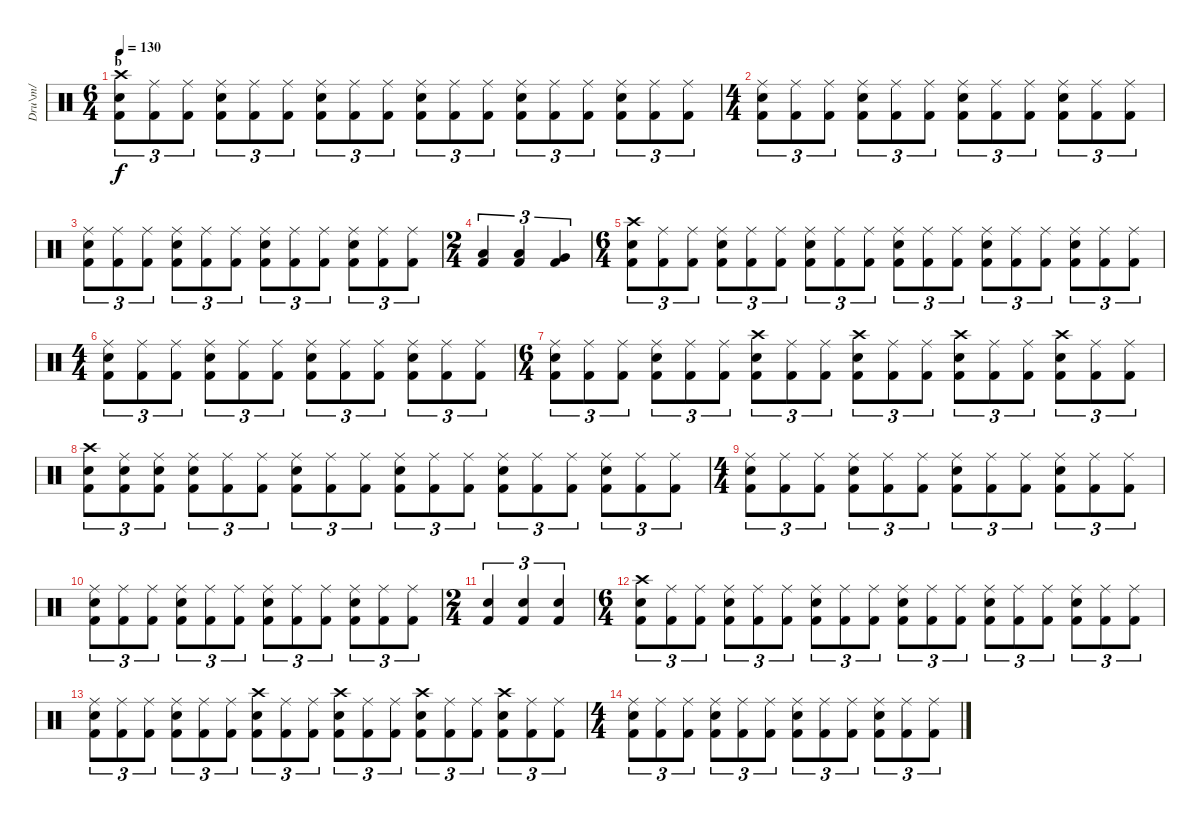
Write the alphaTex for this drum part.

\track ("Dru\\m/" "Dru\\m/") {instrument percussion}
\staff {score}
\articulation defaults
\ts (6 4)
\section ("" "b")
\tempo 130
\clef neutral
\ks c
("Crash high (hit)" "Electric Snare (hit)" "Kick (hit) 2").8{tu (3 2) dy f} ("Ride (middle)" "Kick (hit) 2").8{tu (3 2)} ("Ride (middle)" "Kick (hit) 2").8{tu (3 2)} ("Ride (middle)" "Electric Snare (hit)" "Kick (hit) 2").8{tu (3 2)} ("Ride (middle)" "Kick (hit) 2").8{tu (3 2)} ("Ride (middle)" "Kick (hit) 2").8{tu (3 2)} ("Ride (middle)" "Electric Snare (hit)" "Kick (hit) 2").8{tu (3 2)} ("Ride (middle)" "Kick (hit) 2").8{tu (3 2)} ("Ride (middle)" "Kick (hit) 2").8{tu (3 2)} ("Ride (middle)" "Electric Snare (hit)" "Kick (hit) 2").8{tu (3 2)} ("Ride (middle)" "Kick (hit) 2").8{tu (3 2)} ("Ride (middle)" "Kick (hit) 2").8{tu (3 2)} ("Ride (middle)" "Electric Snare (hit)" "Kick (hit) 2").8{tu (3 2)} ("Ride (middle)" "Kick (hit) 2").8{tu (3 2)} ("Ride (middle)" "Kick (hit) 2").8{tu (3 2)} ("Ride (middle)" "Electric Snare (hit)" "Kick (hit) 2").8{tu (3 2)} ("Ride (middle)" "Kick (hit) 2").8{tu (3 2)} ("Ride (middle)" "Kick (hit) 2").8{tu (3 2)} |
\ts (4 4)
("Ride (middle)" "Electric Snare (hit)" "Kick (hit) 2").8{tu (3 2)} ("Ride (middle)" "Kick (hit) 2").8{tu (3 2)} ("Ride (middle)" "Kick (hit) 2").8{tu (3 2)} ("Ride (middle)" "Electric Snare (hit)" "Kick (hit) 2").8{tu (3 2)} ("Ride (middle)" "Kick (hit) 2").8{tu (3 2)} ("Ride (middle)" "Kick (hit) 2").8{tu (3 2)} ("Ride (middle)" "Electric Snare (hit)" "Kick (hit) 2").8{tu (3 2)} ("Ride (middle)" "Kick (hit) 2").8{tu (3 2)} ("Ride (middle)" "Kick (hit) 2").8{tu (3 2)} ("Ride (middle)" "Electric Snare (hit)" "Kick (hit) 2").8{tu (3 2)} ("Ride (middle)" "Kick (hit) 2").8{tu (3 2)} ("Ride (middle)" "Kick (hit) 2").8{tu (3 2)} |
("Ride (middle)" "Electric Snare (hit)" "Kick (hit) 2").8{tu (3 2)} ("Ride (middle)" "Kick (hit) 2").8{tu (3 2)} ("Ride (middle)" "Kick (hit) 2").8{tu (3 2)} ("Ride (middle)" "Electric Snare (hit)" "Kick (hit) 2").8{tu (3 2)} ("Ride (middle)" "Kick (hit) 2").8{tu (3 2)} ("Ride (middle)" "Kick (hit) 2").8{tu (3 2)} ("Ride (middle)" "Electric Snare (hit)" "Kick (hit) 2").8{tu (3 2)} ("Ride (middle)" "Kick (hit) 2").8{tu (3 2)} ("Ride (middle)" "Kick (hit) 2").8{tu (3 2)} ("Ride (middle)" "Electric Snare (hit)" "Kick (hit) 2").8{tu (3 2)} ("Ride (middle)" "Kick (hit) 2").8{tu (3 2)} ("Ride (middle)" "Kick (hit) 2").8{tu (3 2)} |
\ts (2 4)
("Low Tom (hit)" "Kick (hit) 2").4{tu (3 2)} ("Low Tom (hit)" "Kick (hit) 2").4{tu (3 2)} ("Very Low Tom (hit)" "Kick (hit) 2").4{tu (3 2)} |
\ts (6 4)
("Crash high (hit)" "Electric Snare (hit)" "Kick (hit) 2").8{tu (3 2)} ("Ride (middle)" "Kick (hit) 2").8{tu (3 2)} ("Ride (middle)" "Kick (hit) 2").8{tu (3 2)} ("Ride (middle)" "Electric Snare (hit)" "Kick (hit) 2").8{tu (3 2)} ("Ride (middle)" "Kick (hit) 2").8{tu (3 2)} ("Ride (middle)" "Kick (hit) 2").8{tu (3 2)} ("Ride (middle)" "Electric Snare (hit)" "Kick (hit) 2").8{tu (3 2)} ("Ride (middle)" "Kick (hit) 2").8{tu (3 2)} ("Ride (middle)" "Kick (hit) 2").8{tu (3 2)} ("Ride (middle)" "Electric Snare (hit)" "Kick (hit) 2").8{tu (3 2)} ("Ride (middle)" "Kick (hit) 2").8{tu (3 2)} ("Ride (middle)" "Kick (hit) 2").8{tu (3 2)} ("Ride (middle)" "Electric Snare (hit)" "Kick (hit) 2").8{tu (3 2)} ("Ride (middle)" "Kick (hit) 2").8{tu (3 2)} ("Ride (middle)" "Kick (hit) 2").8{tu (3 2)} ("Ride (middle)" "Electric Snare (hit)" "Kick (hit) 2").8{tu (3 2)} ("Ride (middle)" "Kick (hit) 2").8{tu (3 2)} ("Ride (middle)" "Kick (hit) 2").8{tu (3 2)} |
\ts (4 4)
("Ride (middle)" "Electric Snare (hit)" "Kick (hit) 2").8{tu (3 2)} ("Ride (middle)" "Kick (hit) 2").8{tu (3 2)} ("Ride (middle)" "Kick (hit) 2").8{tu (3 2)} ("Ride (middle)" "Electric Snare (hit)" "Kick (hit) 2").8{tu (3 2)} ("Ride (middle)" "Kick (hit) 2").8{tu (3 2)} ("Ride (middle)" "Kick (hit) 2").8{tu (3 2)} ("Ride (middle)" "Electric Snare (hit)" "Kick (hit) 2").8{tu (3 2)} ("Ride (middle)" "Kick (hit) 2").8{tu (3 2)} ("Ride (middle)" "Kick (hit) 2").8{tu (3 2)} ("Ride (middle)" "Electric Snare (hit)" "Kick (hit) 2").8{tu (3 2)} ("Ride (middle)" "Kick (hit) 2").8{tu (3 2)} ("Ride (middle)" "Kick (hit) 2").8{tu (3 2)} |
\ts (6 4)
("Ride (middle)" "Electric Snare (hit)" "Kick (hit) 2").8{tu (3 2)} ("Ride (middle)" "Kick (hit) 2").8{tu (3 2)} ("Ride (middle)" "Kick (hit) 2").8{tu (3 2)} ("Ride (middle)" "Electric Snare (hit)" "Kick (hit) 2").8{tu (3 2)} ("Ride (middle)" "Kick (hit) 2").8{tu (3 2)} ("Ride (middle)" "Kick (hit) 2").8{tu (3 2)} ("Crash high (hit)" "Electric Snare (hit)" "Kick (hit) 2").8{tu (3 2)} ("Ride (middle)" "Kick (hit) 2").8{tu (3 2)} ("Ride (middle)" "Kick (hit) 2").8{tu (3 2)} ("Crash high (hit)" "Electric Snare (hit)" "Kick (hit) 2").8{tu (3 2)} ("Ride (middle)" "Kick (hit) 2").8{tu (3 2)} ("Ride (middle)" "Kick (hit) 2").8{tu (3 2)} ("Crash high (hit)" "Electric Snare (hit)" "Kick (hit) 2").8{tu (3 2)} ("Ride (middle)" "Kick (hit) 2").8{tu (3 2)} ("Ride (middle)" "Kick (hit) 2").8{tu (3 2)} ("Crash high (hit)" "Electric Snare (hit)" "Kick (hit) 2").8{tu (3 2)} ("Ride (middle)" "Kick (hit) 2").8{tu (3 2)} ("Ride (middle)" "Kick (hit) 2").8{tu (3 2)} |
("Crash high (hit)" "Electric Snare (hit)" "Kick (hit) 2").8{tu (3 2)} ("Ride (middle)" "Electric Snare (hit)" "Kick (hit) 2").8{tu (3 2)} ("Ride (middle)" "Electric Snare (hit)" "Kick (hit) 2").8{tu (3 2)} ("Ride (middle)" "Electric Snare (hit)" "Kick (hit) 2").8{tu (3 2)} ("Ride (middle)" "Kick (hit) 2").8{tu (3 2)} ("Ride (middle)" "Kick (hit) 2").8{tu (3 2)} ("Ride (middle)" "Electric Snare (hit)" "Kick (hit) 2").8{tu (3 2)} ("Ride (middle)" "Kick (hit) 2").8{tu (3 2)} ("Ride (middle)" "Kick (hit) 2").8{tu (3 2)} ("Ride (middle)" "Electric Snare (hit)" "Kick (hit) 2").8{tu (3 2)} ("Ride (middle)" "Kick (hit) 2").8{tu (3 2)} ("Ride (middle)" "Kick (hit) 2").8{tu (3 2)} ("Ride (middle)" "Electric Snare (hit)" "Kick (hit) 2").8{tu (3 2)} ("Ride (middle)" "Kick (hit) 2").8{tu (3 2)} ("Ride (middle)" "Kick (hit) 2").8{tu (3 2)} ("Ride (middle)" "Electric Snare (hit)" "Kick (hit) 2").8{tu (3 2)} ("Ride (middle)" "Kick (hit) 2").8{tu (3 2)} ("Ride (middle)" "Kick (hit) 2").8{tu (3 2)} |
\ts (4 4)
("Ride (middle)" "Electric Snare (hit)" "Kick (hit) 2").8{tu (3 2)} ("Ride (middle)" "Kick (hit) 2").8{tu (3 2)} ("Ride (middle)" "Kick (hit) 2").8{tu (3 2)} ("Ride (middle)" "Electric Snare (hit)" "Kick (hit) 2").8{tu (3 2)} ("Ride (middle)" "Kick (hit) 2").8{tu (3 2)} ("Ride (middle)" "Kick (hit) 2").8{tu (3 2)} ("Ride (middle)" "Electric Snare (hit)" "Kick (hit) 2").8{tu (3 2)} ("Ride (middle)" "Kick (hit) 2").8{tu (3 2)} ("Ride (middle)" "Kick (hit) 2").8{tu (3 2)} ("Ride (middle)" "Electric Snare (hit)" "Kick (hit) 2").8{tu (3 2)} ("Ride (middle)" "Kick (hit) 2").8{tu (3 2)} ("Ride (middle)" "Kick (hit) 2").8{tu (3 2)} |
("Ride (middle)" "Electric Snare (hit)" "Kick (hit) 2").8{tu (3 2)} ("Ride (middle)" "Kick (hit) 2").8{tu (3 2)} ("Ride (middle)" "Kick (hit) 2").8{tu (3 2)} ("Ride (middle)" "Electric Snare (hit)" "Kick (hit) 2").8{tu (3 2)} ("Ride (middle)" "Kick (hit) 2").8{tu (3 2)} ("Ride (middle)" "Kick (hit) 2").8{tu (3 2)} ("Ride (middle)" "Electric Snare (hit)" "Kick (hit) 2").8{tu (3 2)} ("Ride (middle)" "Kick (hit) 2").8{tu (3 2)} ("Ride (middle)" "Kick (hit) 2").8{tu (3 2)} ("Ride (middle)" "Electric Snare (hit)" "Kick (hit) 2").8{tu (3 2)} ("Ride (middle)" "Kick (hit) 2").8{tu (3 2)} ("Ride (middle)" "Kick (hit) 2").8{tu (3 2)} |
\ts (2 4)
("Electric Snare (hit)" "Kick (hit) 2").4{tu (3 2)} ("Electric Snare (hit)" "Kick (hit) 2").4{tu (3 2)} ("Electric Snare (hit)" "Kick (hit) 2").4{tu (3 2)} |
\ts (6 4)
("Crash high (hit)" "Electric Snare (hit)" "Kick (hit) 2").8{tu (3 2)} ("Ride (middle)" "Kick (hit) 2").8{tu (3 2)} ("Ride (middle)" "Kick (hit) 2").8{tu (3 2)} ("Ride (middle)" "Electric Snare (hit)" "Kick (hit) 2").8{tu (3 2)} ("Ride (middle)" "Kick (hit) 2").8{tu (3 2)} ("Ride (middle)" "Kick (hit) 2").8{tu (3 2)} ("Ride (middle)" "Electric Snare (hit)" "Kick (hit) 2").8{tu (3 2)} ("Ride (middle)" "Kick (hit) 2").8{tu (3 2)} ("Ride (middle)" "Kick (hit) 2").8{tu (3 2)} ("Ride (middle)" "Electric Snare (hit)" "Kick (hit) 2").8{tu (3 2)} ("Ride (middle)" "Kick (hit) 2").8{tu (3 2)} ("Ride (middle)" "Kick (hit) 2").8{tu (3 2)} ("Ride (middle)" "Electric Snare (hit)" "Kick (hit) 2").8{tu (3 2)} ("Ride (middle)" "Kick (hit) 2").8{tu (3 2)} ("Ride (middle)" "Kick (hit) 2").8{tu (3 2)} ("Ride (middle)" "Electric Snare (hit)" "Kick (hit) 2").8{tu (3 2)} ("Ride (middle)" "Kick (hit) 2").8{tu (3 2)} ("Ride (middle)" "Kick (hit) 2").8{tu (3 2)} |
("Ride (middle)" "Electric Snare (hit)" "Kick (hit) 2").8{tu (3 2)} ("Ride (middle)" "Kick (hit) 2").8{tu (3 2)} ("Ride (middle)" "Kick (hit) 2").8{tu (3 2)} ("Ride (middle)" "Electric Snare (hit)" "Kick (hit) 2").8{tu (3 2)} ("Ride (middle)" "Kick (hit) 2").8{tu (3 2)} ("Ride (middle)" "Kick (hit) 2").8{tu (3 2)} ("Crash high (hit)" "Electric Snare (hit)" "Kick (hit) 2").8{tu (3 2)} ("Ride (middle)" "Kick (hit) 2").8{tu (3 2)} ("Ride (middle)" "Kick (hit) 2").8{tu (3 2)} ("Crash high (hit)" "Electric Snare (hit)" "Kick (hit) 2").8{tu (3 2)} ("Ride (middle)" "Kick (hit) 2").8{tu (3 2)} ("Ride (middle)" "Kick (hit) 2").8{tu (3 2)} ("Crash high (hit)" "Electric Snare (hit)" "Kick (hit) 2").8{tu (3 2)} ("Ride (middle)" "Kick (hit) 2").8{tu (3 2)} ("Ride (middle)" "Kick (hit) 2").8{tu (3 2)} ("Crash high (hit)" "Electric Snare (hit)" "Kick (hit) 2").8{tu (3 2)} ("Ride (middle)" "Kick (hit) 2").8{tu (3 2)} ("Ride (middle)" "Kick (hit) 2").8{tu (3 2)} |
\ts (4 4)
("Ride (middle)" "Electric Snare (hit)" "Kick (hit) 2").8{tu (3 2)} ("Ride (middle)" "Kick (hit) 2").8{tu (3 2)} ("Ride (middle)" "Kick (hit) 2").8{tu (3 2)} ("Ride (middle)" "Electric Snare (hit)" "Kick (hit) 2").8{tu (3 2)} ("Ride (middle)" "Kick (hit) 2").8{tu (3 2)} ("Ride (middle)" "Kick (hit) 2").8{tu (3 2)} ("Ride (middle)" "Electric Snare (hit)" "Kick (hit) 2").8{tu (3 2)} ("Ride (middle)" "Kick (hit) 2").8{tu (3 2)} ("Ride (middle)" "Kick (hit) 2").8{tu (3 2)} ("Ride (middle)" "Electric Snare (hit)" "Kick (hit) 2").8{tu (3 2)} ("Ride (middle)" "Kick (hit) 2").8{tu (3 2)} ("Ride (middle)" "Kick (hit) 2").8{tu (3 2)}
